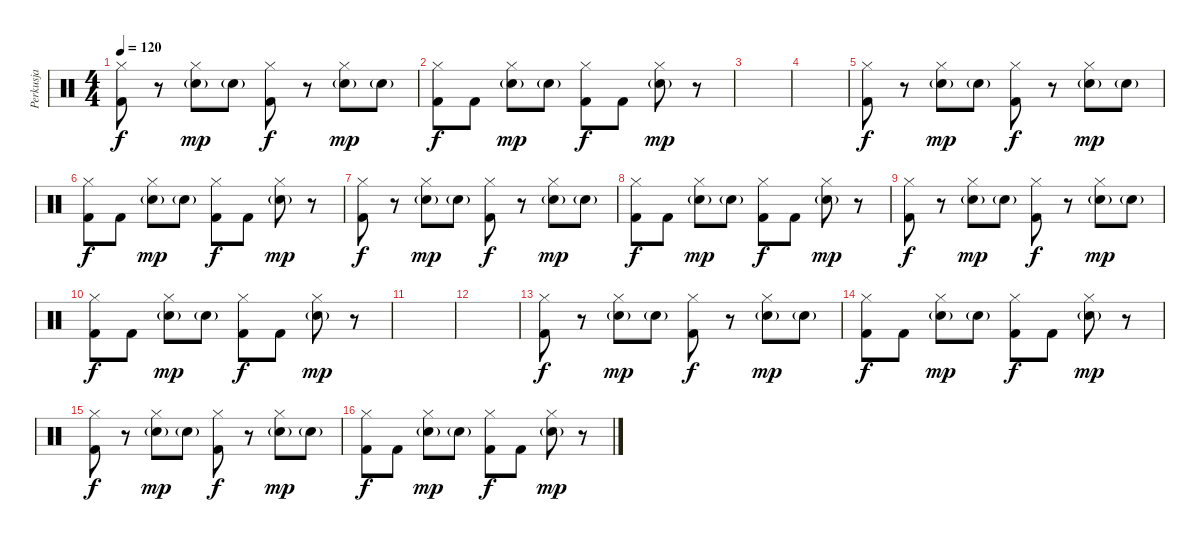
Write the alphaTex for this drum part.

\track ("Perkusja" "Perkusja") {instrument percussion}
\staff {score}
\articulation defaults
\ts (4 4)
\tempo 120
\clef neutral
\ks c
("Hi-Hat (closed)" "Kick (hit) 2").8{dy f} r.8 ("Hi-Hat (closed)" "Snare (hit) 2"{g}).8{dy mp} "Snare (hit) 2"{g}.8 ("Hi-Hat (closed)" "Kick (hit) 2").8{dy f} r.8 ("Hi-Hat (closed)" "Snare (hit) 2"{g}).8{dy mp} "Snare (hit) 2"{g}.8 |
("Hi-Hat (closed)" "Kick (hit) 2").8{dy f} "Kick (hit) 2".8 ("Hi-Hat (closed)" "Snare (hit) 2"{g}).8{dy mp} "Snare (hit) 2"{g}.8 ("Hi-Hat (closed)" "Kick (hit) 2").8{dy f} "Kick (hit) 2".8 ("Hi-Hat (closed)" "Snare (hit) 2"{g}).8{dy mp} r.8 |
|
|
("Hi-Hat (closed)" "Kick (hit) 2").8{dy f} r.8 ("Hi-Hat (closed)" "Snare (hit) 2"{g}).8{dy mp} "Snare (hit) 2"{g}.8 ("Hi-Hat (closed)" "Kick (hit) 2").8{dy f} r.8 ("Hi-Hat (closed)" "Snare (hit) 2"{g}).8{dy mp} "Snare (hit) 2"{g}.8 |
("Hi-Hat (closed)" "Kick (hit) 2").8{dy f} "Kick (hit) 2".8 ("Hi-Hat (closed)" "Snare (hit) 2"{g}).8{dy mp} "Snare (hit) 2"{g}.8 ("Hi-Hat (closed)" "Kick (hit) 2").8{dy f} "Kick (hit) 2".8 ("Hi-Hat (closed)" "Snare (hit) 2"{g}).8{dy mp} r.8 |
("Hi-Hat (closed)" "Kick (hit) 2").8{dy f} r.8 ("Hi-Hat (closed)" "Snare (hit) 2"{g}).8{dy mp} "Snare (hit) 2"{g}.8 ("Hi-Hat (closed)" "Kick (hit) 2").8{dy f} r.8 ("Hi-Hat (closed)" "Snare (hit) 2"{g}).8{dy mp} "Snare (hit) 2"{g}.8 |
("Hi-Hat (closed)" "Kick (hit) 2").8{dy f} "Kick (hit) 2".8 ("Hi-Hat (closed)" "Snare (hit) 2"{g}).8{dy mp} "Snare (hit) 2"{g}.8 ("Hi-Hat (closed)" "Kick (hit) 2").8{dy f} "Kick (hit) 2".8 ("Hi-Hat (closed)" "Snare (hit) 2"{g}).8{dy mp} r.8 |
("Hi-Hat (closed)" "Kick (hit) 2").8{dy f} r.8 ("Hi-Hat (closed)" "Snare (hit) 2"{g}).8{dy mp} "Snare (hit) 2"{g}.8 ("Hi-Hat (closed)" "Kick (hit) 2").8{dy f} r.8 ("Hi-Hat (closed)" "Snare (hit) 2"{g}).8{dy mp} "Snare (hit) 2"{g}.8 |
("Hi-Hat (closed)" "Kick (hit) 2").8{dy f} "Kick (hit) 2".8 ("Hi-Hat (closed)" "Snare (hit) 2"{g}).8{dy mp} "Snare (hit) 2"{g}.8 ("Hi-Hat (closed)" "Kick (hit) 2").8{dy f} "Kick (hit) 2".8 ("Hi-Hat (closed)" "Snare (hit) 2"{g}).8{dy mp} r.8 |
|
|
("Hi-Hat (closed)" "Kick (hit) 2").8{dy f} r.8 ("Hi-Hat (closed)" "Snare (hit) 2"{g}).8{dy mp} "Snare (hit) 2"{g}.8 ("Hi-Hat (closed)" "Kick (hit) 2").8{dy f} r.8 ("Hi-Hat (closed)" "Snare (hit) 2"{g}).8{dy mp} "Snare (hit) 2"{g}.8 |
("Hi-Hat (closed)" "Kick (hit) 2").8{dy f} "Kick (hit) 2".8 ("Hi-Hat (closed)" "Snare (hit) 2"{g}).8{dy mp} "Snare (hit) 2"{g}.8 ("Hi-Hat (closed)" "Kick (hit) 2").8{dy f} "Kick (hit) 2".8 ("Hi-Hat (closed)" "Snare (hit) 2"{g}).8{dy mp} r.8 |
("Hi-Hat (closed)" "Kick (hit) 2").8{dy f} r.8 ("Hi-Hat (closed)" "Snare (hit) 2"{g}).8{dy mp} "Snare (hit) 2"{g}.8 ("Hi-Hat (closed)" "Kick (hit) 2").8{dy f} r.8 ("Hi-Hat (closed)" "Snare (hit) 2"{g}).8{dy mp} "Snare (hit) 2"{g}.8 |
("Hi-Hat (closed)" "Kick (hit) 2").8{dy f} "Kick (hit) 2".8 ("Hi-Hat (closed)" "Snare (hit) 2"{g}).8{dy mp} "Snare (hit) 2"{g}.8 ("Hi-Hat (closed)" "Kick (hit) 2").8{dy f} "Kick (hit) 2".8 ("Hi-Hat (closed)" "Snare (hit) 2"{g}).8{dy mp} r.8
